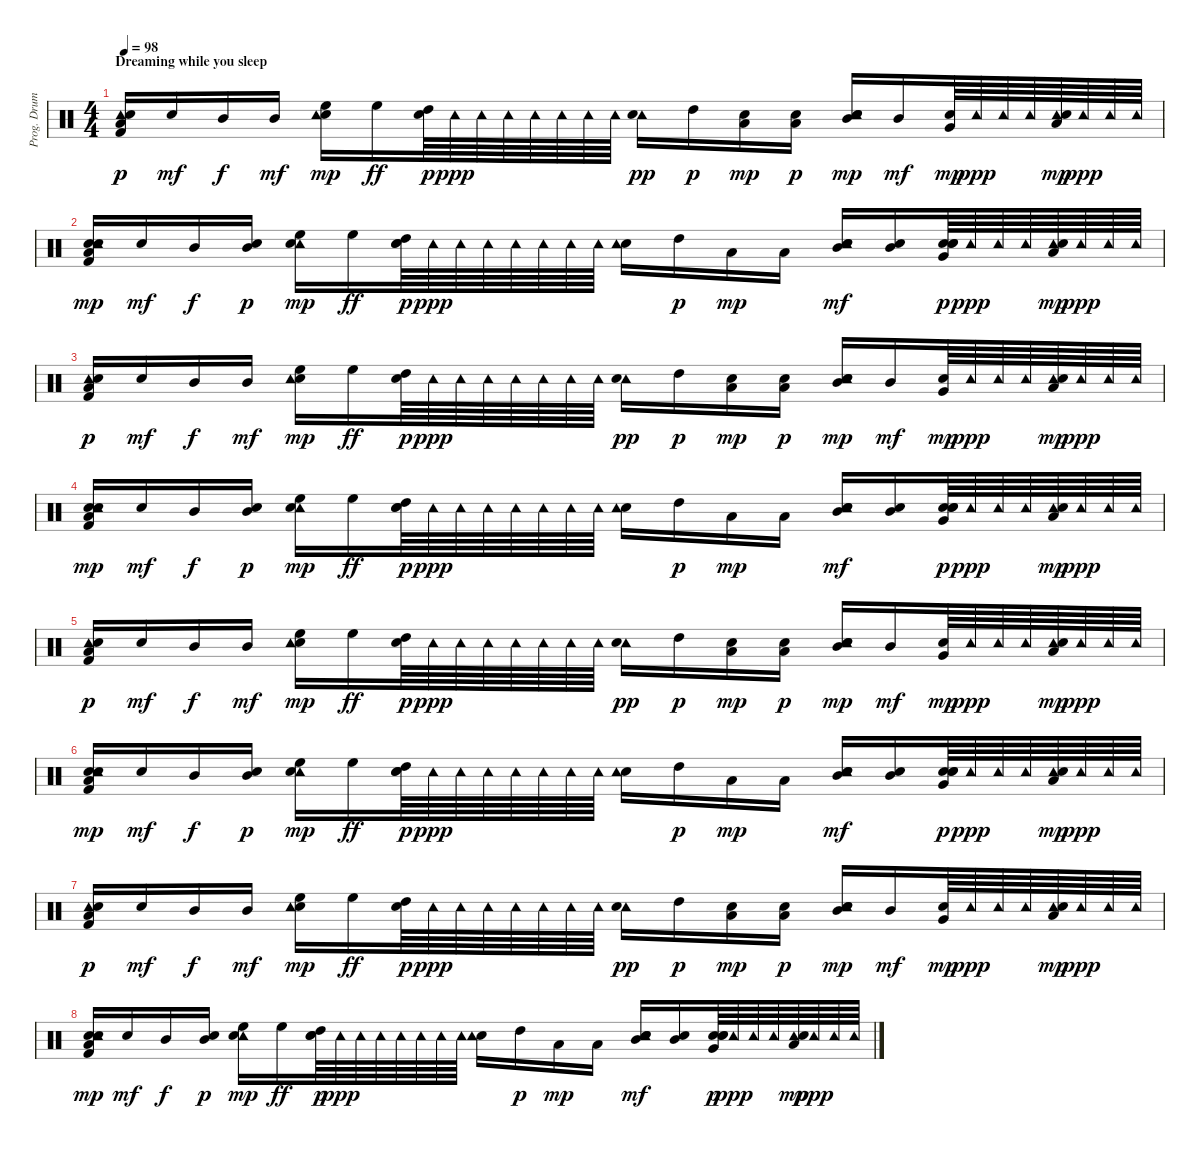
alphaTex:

\track ("Prog. Drums" "Prog. Drum") {instrument percussion}
\staff {score}
\articulation defaults
\ts (4 4)
\section ("" "Dreaming while you sleep")
\tempo 98
\clef neutral
\ks c
("Tambourine (hit)" "Snare (hit)" "Low Floor Tom (hit)" "Kick (hit) 2").16{dy p} "Snare (hit)".16{dy mf} "Mid Tom (hit)".16{dy f} "Mid Tom (hit)".16{dy mf} ("Snare (hit) 2" "High Floor Tom (hit)" "Tambourine (hit)").16{dy mp} "High Floor Tom (hit)".16{dy ff} ("High Tom (hit)" "Snare (hit)").64{dy p} "Tambourine (hit)".64{dy ppp} "Tambourine (hit)".64 "Tambourine (hit)".64 "Tambourine (hit)".64 "Tambourine (hit)".64 "Tambourine (hit)".64 "Tambourine (hit)".64 ("Tambourine (hit)" "Snare (hit) 2").16{dy pp} "High Tom (hit)".16{dy p} ("Snare (hit)" "Low Tom (hit)").16{dy mp} ("Low Tom (hit)" "Snare (hit)").16{dy p} ("Snare (hit) 2" "Mid Tom (hit)" "Snare (hit)" "Tambourine (hit)").16{dy mp} "Mid Tom (hit)".16{dy mf} ("Snare (hit)" "Very Low Tom (hit)").64{dy mp} "Tambourine (hit)".64{dy ppp} "Tambourine (hit)".64 "Tambourine (hit)".64 ("Tambourine (hit)" "Snare (hit) 2" "Low Tom (hit)").64{dy mp} "Tambourine (hit)".64{dy ppp} "Tambourine (hit)".64 "Tambourine (hit)".64 |
("Snare (hit)" "Snare (hit)" "Tambourine (hit)" "Kick (hit) 2" "Low Floor Tom (hit)").16{dy mp} "Snare (hit)".16{dy mf} "Mid Tom (hit)".16{dy f} ("Mid Tom (hit)" "Snare (hit)").16{dy p} ("Tambourine (hit)" "High Floor Tom (hit)" "Snare (hit) 2").16{dy mp} "High Floor Tom (hit)".16{dy ff} ("High Tom (hit)" "Snare (hit)" "Snare (hit)").64{dy p} "Tambourine (hit)".64{dy ppp} "Tambourine (hit)".64 "Tambourine (hit)".64 "Tambourine (hit)".64 "Tambourine (hit)".64 "Tambourine (hit)".64 "Tambourine (hit)".64 ("Snare (hit) 2" "Tambourine (hit)").16 "High Tom (hit)".16{dy p} "Low Tom (hit)".16{dy mp} "Low Tom (hit)".16 ("Tambourine (hit)" "Snare (hit)" "Snare (hit) 2" "Mid Tom (hit)").16{dy mf} ("Snare (hit) 2" "Mid Tom (hit)").16 ("Snare (hit) 2" "Very Low Tom (hit)" "Snare (hit)" "Snare (hit)").64{dy p} "Tambourine (hit)".64{dy ppp} "Tambourine (hit)".64 "Tambourine (hit)".64 ("Tambourine (hit)" "Snare (hit) 2" "Low Tom (hit)").64{dy mp} "Tambourine (hit)".64{dy ppp} "Tambourine (hit)".64 "Tambourine (hit)".64 |
("Tambourine (hit)" "Snare (hit)" "Low Floor Tom (hit)" "Kick (hit) 2").16{dy p} "Snare (hit)".16{dy mf} "Mid Tom (hit)".16{dy f} "Mid Tom (hit)".16{dy mf} ("Snare (hit) 2" "High Floor Tom (hit)" "Tambourine (hit)").16{dy mp} "High Floor Tom (hit)".16{dy ff} ("High Tom (hit)" "Snare (hit)").64{dy p} "Tambourine (hit)".64{dy ppp} "Tambourine (hit)".64 "Tambourine (hit)".64 "Tambourine (hit)".64 "Tambourine (hit)".64 "Tambourine (hit)".64 "Tambourine (hit)".64 ("Tambourine (hit)" "Snare (hit) 2").16{dy pp} "High Tom (hit)".16{dy p} ("Snare (hit)" "Low Tom (hit)").16{dy mp} ("Low Tom (hit)" "Snare (hit)").16{dy p} ("Snare (hit) 2" "Mid Tom (hit)" "Snare (hit)" "Tambourine (hit)").16{dy mp} "Mid Tom (hit)".16{dy mf} ("Snare (hit)" "Very Low Tom (hit)").64{dy mp} "Tambourine (hit)".64{dy ppp} "Tambourine (hit)".64 "Tambourine (hit)".64 ("Tambourine (hit)" "Snare (hit) 2" "Low Tom (hit)").64{dy mp} "Tambourine (hit)".64{dy ppp} "Tambourine (hit)".64 "Tambourine (hit)".64 |
("Snare (hit)" "Snare (hit)" "Tambourine (hit)" "Kick (hit) 2" "Low Floor Tom (hit)").16{dy mp} "Snare (hit)".16{dy mf} "Mid Tom (hit)".16{dy f} ("Mid Tom (hit)" "Snare (hit)").16{dy p} ("Tambourine (hit)" "High Floor Tom (hit)" "Snare (hit) 2").16{dy mp} "High Floor Tom (hit)".16{dy ff} ("High Tom (hit)" "Snare (hit)" "Snare (hit)").64{dy p} "Tambourine (hit)".64{dy ppp} "Tambourine (hit)".64 "Tambourine (hit)".64 "Tambourine (hit)".64 "Tambourine (hit)".64 "Tambourine (hit)".64 "Tambourine (hit)".64 ("Snare (hit) 2" "Tambourine (hit)").16 "High Tom (hit)".16{dy p} "Low Tom (hit)".16{dy mp} "Low Tom (hit)".16 ("Tambourine (hit)" "Snare (hit)" "Snare (hit) 2" "Mid Tom (hit)").16{dy mf} ("Snare (hit) 2" "Mid Tom (hit)").16 ("Snare (hit) 2" "Very Low Tom (hit)" "Snare (hit)" "Snare (hit)").64{dy p} "Tambourine (hit)".64{dy ppp} "Tambourine (hit)".64 "Tambourine (hit)".64 ("Tambourine (hit)" "Snare (hit) 2" "Low Tom (hit)").64{dy mp} "Tambourine (hit)".64{dy ppp} "Tambourine (hit)".64 "Tambourine (hit)".64 |
("Tambourine (hit)" "Snare (hit)" "Low Floor Tom (hit)" "Kick (hit) 2").16{dy p} "Snare (hit)".16{dy mf} "Mid Tom (hit)".16{dy f} "Mid Tom (hit)".16{dy mf} ("Snare (hit) 2" "High Floor Tom (hit)" "Tambourine (hit)").16{dy mp} "High Floor Tom (hit)".16{dy ff} ("High Tom (hit)" "Snare (hit)").64{dy p} "Tambourine (hit)".64{dy ppp} "Tambourine (hit)".64 "Tambourine (hit)".64 "Tambourine (hit)".64 "Tambourine (hit)".64 "Tambourine (hit)".64 "Tambourine (hit)".64 ("Tambourine (hit)" "Snare (hit) 2").16{dy pp} "High Tom (hit)".16{dy p} ("Snare (hit)" "Low Tom (hit)").16{dy mp} ("Low Tom (hit)" "Snare (hit)").16{dy p} ("Snare (hit) 2" "Mid Tom (hit)" "Snare (hit)" "Tambourine (hit)").16{dy mp} "Mid Tom (hit)".16{dy mf} ("Snare (hit)" "Very Low Tom (hit)").64{dy mp} "Tambourine (hit)".64{dy ppp} "Tambourine (hit)".64 "Tambourine (hit)".64 ("Tambourine (hit)" "Snare (hit) 2" "Low Tom (hit)").64{dy mp} "Tambourine (hit)".64{dy ppp} "Tambourine (hit)".64 "Tambourine (hit)".64 |
("Snare (hit)" "Snare (hit)" "Tambourine (hit)" "Kick (hit) 2" "Low Floor Tom (hit)").16{dy mp} "Snare (hit)".16{dy mf} "Mid Tom (hit)".16{dy f} ("Mid Tom (hit)" "Snare (hit)").16{dy p} ("Tambourine (hit)" "High Floor Tom (hit)" "Snare (hit) 2").16{dy mp} "High Floor Tom (hit)".16{dy ff} ("High Tom (hit)" "Snare (hit)" "Snare (hit)").64{dy p} "Tambourine (hit)".64{dy ppp} "Tambourine (hit)".64 "Tambourine (hit)".64 "Tambourine (hit)".64 "Tambourine (hit)".64 "Tambourine (hit)".64 "Tambourine (hit)".64 ("Snare (hit) 2" "Tambourine (hit)").16 "High Tom (hit)".16{dy p} "Low Tom (hit)".16{dy mp} "Low Tom (hit)".16 ("Tambourine (hit)" "Snare (hit)" "Snare (hit) 2" "Mid Tom (hit)").16{dy mf} ("Snare (hit) 2" "Mid Tom (hit)").16 ("Snare (hit) 2" "Very Low Tom (hit)" "Snare (hit)" "Snare (hit)").64{dy p} "Tambourine (hit)".64{dy ppp} "Tambourine (hit)".64 "Tambourine (hit)".64 ("Tambourine (hit)" "Snare (hit) 2" "Low Tom (hit)").64{dy mp} "Tambourine (hit)".64{dy ppp} "Tambourine (hit)".64 "Tambourine (hit)".64 |
("Tambourine (hit)" "Snare (hit)" "Low Floor Tom (hit)" "Kick (hit) 2").16{dy p} "Snare (hit)".16{dy mf} "Mid Tom (hit)".16{dy f} "Mid Tom (hit)".16{dy mf} ("Snare (hit) 2" "High Floor Tom (hit)" "Tambourine (hit)").16{dy mp} "High Floor Tom (hit)".16{dy ff} ("High Tom (hit)" "Snare (hit)").64{dy p} "Tambourine (hit)".64{dy ppp} "Tambourine (hit)".64 "Tambourine (hit)".64 "Tambourine (hit)".64 "Tambourine (hit)".64 "Tambourine (hit)".64 "Tambourine (hit)".64 ("Tambourine (hit)" "Snare (hit) 2").16{dy pp} "High Tom (hit)".16{dy p} ("Snare (hit)" "Low Tom (hit)").16{dy mp} ("Low Tom (hit)" "Snare (hit)").16{dy p} ("Snare (hit) 2" "Mid Tom (hit)" "Snare (hit)" "Tambourine (hit)").16{dy mp} "Mid Tom (hit)".16{dy mf} ("Snare (hit)" "Very Low Tom (hit)").64{dy mp} "Tambourine (hit)".64{dy ppp} "Tambourine (hit)".64 "Tambourine (hit)".64 ("Tambourine (hit)" "Snare (hit) 2" "Low Tom (hit)").64{dy mp} "Tambourine (hit)".64{dy ppp} "Tambourine (hit)".64 "Tambourine (hit)".64 |
("Snare (hit)" "Snare (hit)" "Tambourine (hit)" "Kick (hit) 2" "Low Floor Tom (hit)").16{dy mp} "Snare (hit)".16{dy mf} "Mid Tom (hit)".16{dy f} ("Mid Tom (hit)" "Snare (hit)").16{dy p} ("Tambourine (hit)" "High Floor Tom (hit)" "Snare (hit) 2").16{dy mp} "High Floor Tom (hit)".16{dy ff} ("High Tom (hit)" "Snare (hit)" "Snare (hit)").64{dy p} "Tambourine (hit)".64{dy ppp} "Tambourine (hit)".64 "Tambourine (hit)".64 "Tambourine (hit)".64 "Tambourine (hit)".64 "Tambourine (hit)".64 "Tambourine (hit)".64 ("Snare (hit) 2" "Tambourine (hit)").16 "High Tom (hit)".16{dy p} "Low Tom (hit)".16{dy mp} "Low Tom (hit)".16 ("Tambourine (hit)" "Snare (hit)" "Snare (hit) 2" "Mid Tom (hit)").16{dy mf} ("Snare (hit) 2" "Mid Tom (hit)").16 ("Snare (hit) 2" "Very Low Tom (hit)" "Snare (hit)" "Snare (hit)").64{dy p} "Tambourine (hit)".64{dy ppp} "Tambourine (hit)".64 "Tambourine (hit)".64 ("Tambourine (hit)" "Snare (hit) 2" "Low Tom (hit)").64{dy mp} "Tambourine (hit)".64{dy ppp} "Tambourine (hit)".64 "Tambourine (hit)".64
